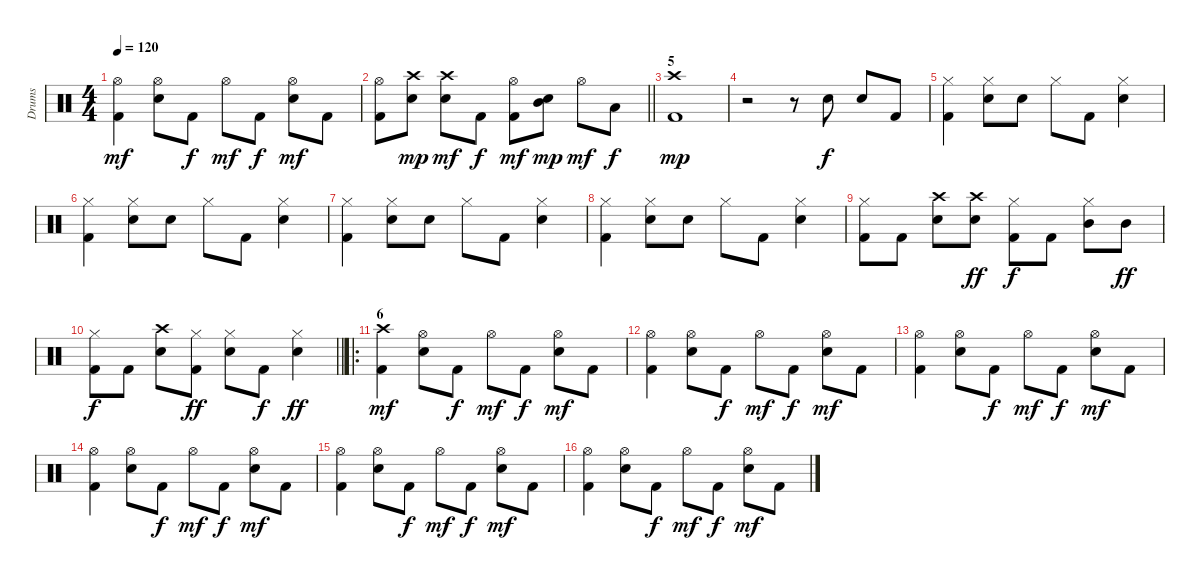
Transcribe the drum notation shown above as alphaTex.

\track ("Drums" "Drums") {instrument percussion}
\staff {score}
\articulation defaults
\ts (4 4)
\tempo 120
\clef neutral
\ks c
("Kick (hit) 2" "Hi-Hat (open)").4{dy mf} ("Hi-Hat (open)" "Electric Snare (hit)").8 "Kick (hit) 2".8{dy f} "Hi-Hat (open)".8{dy mf} "Kick (hit) 2".8{dy f} ("Electric Snare (hit)" "Hi-Hat (open)").8{dy mf} "Kick (hit) 2".8 |
\barLineRight lightlight
("Kick (hit) 2" "Hi-Hat (open)").8 ("Electric Snare (hit)" "Crash high (hit)").8{dy mp} ("Electric Snare (hit)" "Crash high (hit)").8{dy mf} "Kick (hit) 2".8{dy f} ("Kick (hit) 2" "Hi-Hat (open)").8{dy mf} ("Electric Snare (hit)" "Mid Tom (hit)").8{dy mp} "Hi-Hat (open)".8{dy mf} "Low Tom (hit)".8{dy f} |
\section ("" "5")
("Crash high (hit)" "Kick (hit) 2").1{dy mp} |
r.2 r.8 "Electric Snare (hit)".8{dy f} "Electric Snare (hit)".8 "Kick (hit) 2".8 |
("Kick (hit) 2" "Hi-Hat (closed)").4 ("Hi-Hat (closed)" "Electric Snare (hit)").8 "Electric Snare (hit)".8 "Hi-Hat (closed)".8 "Kick (hit) 2".8 ("Electric Snare (hit)" "Hi-Hat (closed)").4 |
("Kick (hit) 2" "Hi-Hat (closed)").4 ("Hi-Hat (closed)" "Electric Snare (hit)").8 "Electric Snare (hit)".8 "Hi-Hat (closed)".8 "Kick (hit) 2".8 ("Electric Snare (hit)" "Hi-Hat (closed)").4 |
("Kick (hit) 2" "Hi-Hat (closed)").4 ("Hi-Hat (closed)" "Electric Snare (hit)").8 "Electric Snare (hit)".8 "Hi-Hat (closed)".8 "Kick (hit) 2".8 ("Electric Snare (hit)" "Hi-Hat (closed)").4 |
("Kick (hit) 2" "Hi-Hat (closed)").4 ("Hi-Hat (closed)" "Electric Snare (hit)").8 "Electric Snare (hit)".8 "Hi-Hat (closed)".8 "Kick (hit) 2".8 ("Electric Snare (hit)" "Hi-Hat (closed)").4 |
("Kick (hit) 2" "Hi-Hat (closed)").8 "Kick (hit) 2".8 ("Crash high (hit)" "Electric Snare (hit)").8 ("Crash high (hit)" "Electric Snare (hit)").8{dy ff} ("Kick (hit) 2" "Hi-Hat (closed)").8{dy f} "Kick (hit) 2".8 ("Mid Tom (hit)" "Hi-Hat (closed)").8 "Mid Tom (hit)".8{dy ff} |
\barLineRight lightlight
("Kick (hit) 2" "Hi-Hat (closed)").8{dy f} "Kick (hit) 2".8 ("Crash high (hit)" "Electric Snare (hit)").8 ("Hi-Hat (closed)" "Kick (hit) 2").8{dy ff} ("Hi-Hat (closed)" "Electric Snare (hit)").8 "Kick (hit) 2".8{dy f} ("Hi-Hat (closed)" "Electric Snare (hit)").4{dy ff} |
\ro
\section ("" "6")
("Kick (hit) 2" "Crash high (hit)").4{dy mf} ("Hi-Hat (open)" "Electric Snare (hit)").8 "Kick (hit) 2".8{dy f} "Hi-Hat (open)".8{dy mf} "Kick (hit) 2".8{dy f} ("Electric Snare (hit)" "Hi-Hat (open)").8{dy mf} "Kick (hit) 2".8 |
("Kick (hit) 2" "Hi-Hat (open)").4 ("Hi-Hat (open)" "Electric Snare (hit)").8 "Kick (hit) 2".8{dy f} "Hi-Hat (open)".8{dy mf} "Kick (hit) 2".8{dy f} ("Electric Snare (hit)" "Hi-Hat (open)").8{dy mf} "Kick (hit) 2".8 |
("Kick (hit) 2" "Hi-Hat (open)").4 ("Hi-Hat (open)" "Electric Snare (hit)").8 "Kick (hit) 2".8{dy f} "Hi-Hat (open)".8{dy mf} "Kick (hit) 2".8{dy f} ("Electric Snare (hit)" "Hi-Hat (open)").8{dy mf} "Kick (hit) 2".8 |
("Kick (hit) 2" "Hi-Hat (open)").4 ("Hi-Hat (open)" "Electric Snare (hit)").8 "Kick (hit) 2".8{dy f} "Hi-Hat (open)".8{dy mf} "Kick (hit) 2".8{dy f} ("Electric Snare (hit)" "Hi-Hat (open)").8{dy mf} "Kick (hit) 2".8 |
("Kick (hit) 2" "Hi-Hat (open)").4 ("Hi-Hat (open)" "Electric Snare (hit)").8 "Kick (hit) 2".8{dy f} "Hi-Hat (open)".8{dy mf} "Kick (hit) 2".8{dy f} ("Electric Snare (hit)" "Hi-Hat (open)").8{dy mf} "Kick (hit) 2".8 |
("Kick (hit) 2" "Hi-Hat (open)").4 ("Hi-Hat (open)" "Electric Snare (hit)").8 "Kick (hit) 2".8{dy f} "Hi-Hat (open)".8{dy mf} "Kick (hit) 2".8{dy f} ("Electric Snare (hit)" "Hi-Hat (open)").8{dy mf} "Kick (hit) 2".8
